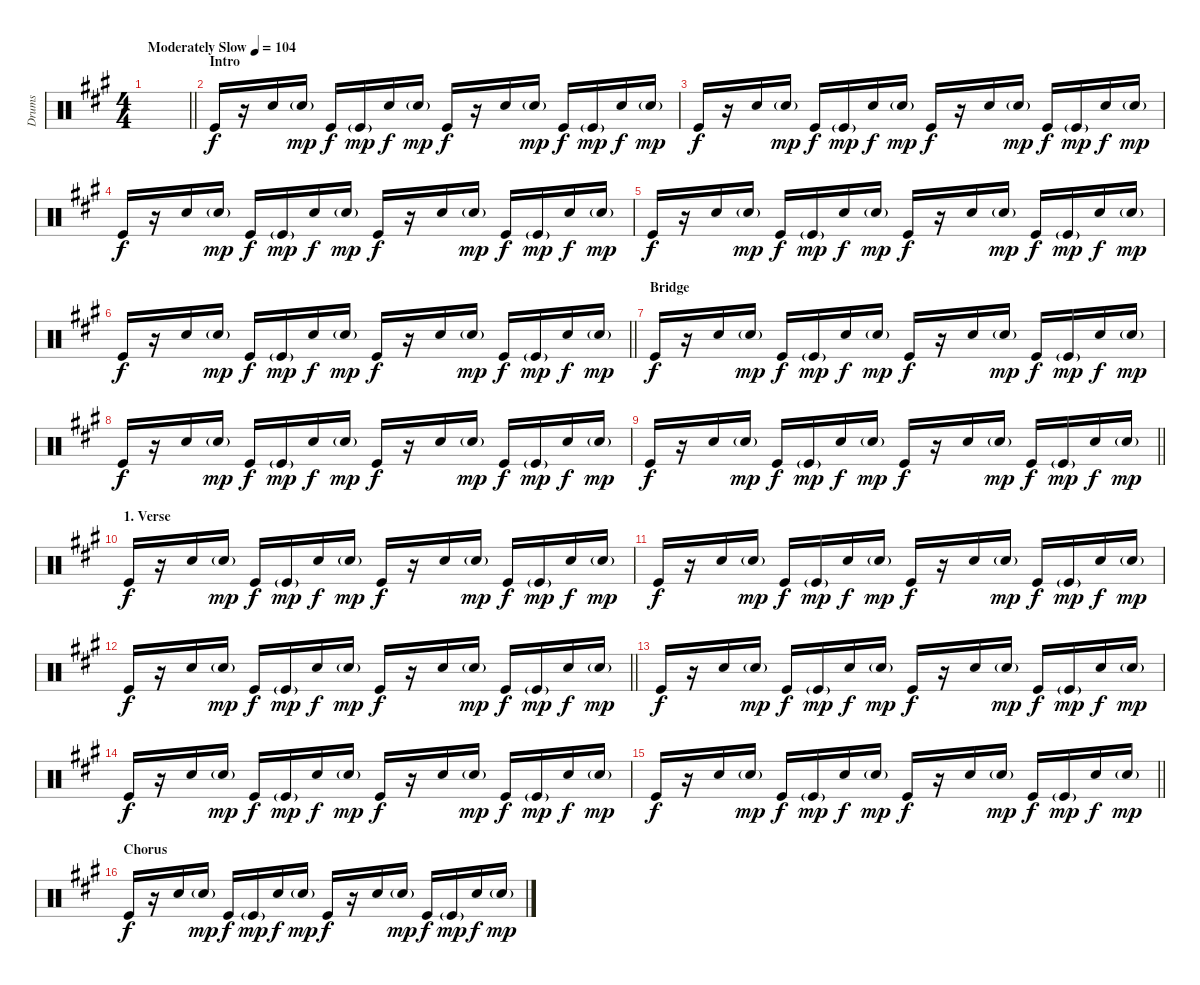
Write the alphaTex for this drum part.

\track ("Drums" "Drums") {instrument percussion}
\staff {score}
\articulation defaults
\ts (4 4)
\tempo (104 "Moderately Slow")
\clef neutral
\barLineRight lightlight
\ks a
|
\section ("" "Intro")
"Kick (hit)".16 r.16 "Electric Snare (hit)".16 "Electric Snare (hit)"{g}.16{dy mp} "Kick (hit)".16{dy f} "Kick (hit)"{g}.16{dy mp} "Electric Snare (hit)".16{dy f} "Electric Snare (hit)"{g}.16{dy mp} "Kick (hit)".16{dy f} r.16 "Electric Snare (hit)".16 "Electric Snare (hit)"{g}.16{dy mp} "Kick (hit)".16{dy f} "Kick (hit)"{g}.16{dy mp} "Electric Snare (hit)".16{dy f} "Electric Snare (hit)"{g}.16{dy mp} |
"Kick (hit)".16{dy f} r.16 "Electric Snare (hit)".16 "Electric Snare (hit)"{g}.16{dy mp} "Kick (hit)".16{dy f} "Kick (hit)"{g}.16{dy mp} "Electric Snare (hit)".16{dy f} "Electric Snare (hit)"{g}.16{dy mp} "Kick (hit)".16{dy f} r.16 "Electric Snare (hit)".16 "Electric Snare (hit)"{g}.16{dy mp} "Kick (hit)".16{dy f} "Kick (hit)"{g}.16{dy mp} "Electric Snare (hit)".16{dy f} "Electric Snare (hit)"{g}.16{dy mp} |
"Kick (hit)".16{dy f} r.16 "Electric Snare (hit)".16 "Electric Snare (hit)"{g}.16{dy mp} "Kick (hit)".16{dy f} "Kick (hit)"{g}.16{dy mp} "Electric Snare (hit)".16{dy f} "Electric Snare (hit)"{g}.16{dy mp} "Kick (hit)".16{dy f} r.16 "Electric Snare (hit)".16 "Electric Snare (hit)"{g}.16{dy mp} "Kick (hit)".16{dy f} "Kick (hit)"{g}.16{dy mp} "Electric Snare (hit)".16{dy f} "Electric Snare (hit)"{g}.16{dy mp} |
"Kick (hit)".16{dy f} r.16 "Electric Snare (hit)".16 "Electric Snare (hit)"{g}.16{dy mp} "Kick (hit)".16{dy f} "Kick (hit)"{g}.16{dy mp} "Electric Snare (hit)".16{dy f} "Electric Snare (hit)"{g}.16{dy mp} "Kick (hit)".16{dy f} r.16 "Electric Snare (hit)".16 "Electric Snare (hit)"{g}.16{dy mp} "Kick (hit)".16{dy f} "Kick (hit)"{g}.16{dy mp} "Electric Snare (hit)".16{dy f} "Electric Snare (hit)"{g}.16{dy mp} |
\barLineRight lightlight "Kick (hit)".16{dy f}
r.16 "Electric Snare (hit)".16 "Electric Snare (hit)"{g}.16{dy mp} "Kick (hit)".16{dy f} "Kick (hit)"{g}.16{dy mp} "Electric Snare (hit)".16{dy f} "Electric Snare (hit)"{g}.16{dy mp} "Kick (hit)".16{dy f} r.16 "Electric Snare (hit)".16 "Electric Snare (hit)"{g}.16{dy mp} "Kick (hit)".16{dy f} "Kick (hit)"{g}.16{dy mp} "Electric Snare (hit)".16{dy f} "Electric Snare (hit)"{g}.16{dy mp} |
\section ("" "Bridge")
"Kick (hit)".16{dy f} r.16 "Electric Snare (hit)".16 "Electric Snare (hit)"{g}.16{dy mp} "Kick (hit)".16{dy f} "Kick (hit)"{g}.16{dy mp} "Electric Snare (hit)".16{dy f} "Electric Snare (hit)"{g}.16{dy mp} "Kick (hit)".16{dy f} r.16 "Electric Snare (hit)".16 "Electric Snare (hit)"{g}.16{dy mp} "Kick (hit)".16{dy f} "Kick (hit)"{g}.16{dy mp} "Electric Snare (hit)".16{dy f} "Electric Snare (hit)"{g}.16{dy mp} |
"Kick (hit)".16{dy f} r.16 "Electric Snare (hit)".16 "Electric Snare (hit)"{g}.16{dy mp} "Kick (hit)".16{dy f} "Kick (hit)"{g}.16{dy mp} "Electric Snare (hit)".16{dy f} "Electric Snare (hit)"{g}.16{dy mp} "Kick (hit)".16{dy f} r.16 "Electric Snare (hit)".16 "Electric Snare (hit)"{g}.16{dy mp} "Kick (hit)".16{dy f} "Kick (hit)"{g}.16{dy mp} "Electric Snare (hit)".16{dy f} "Electric Snare (hit)"{g}.16{dy mp} |
\barLineRight lightlight "Kick (hit)".16{dy f}
r.16 "Electric Snare (hit)".16 "Electric Snare (hit)"{g}.16{dy mp} "Kick (hit)".16{dy f} "Kick (hit)"{g}.16{dy mp} "Electric Snare (hit)".16{dy f} "Electric Snare (hit)"{g}.16{dy mp} "Kick (hit)".16{dy f} r.16 "Electric Snare (hit)".16 "Electric Snare (hit)"{g}.16{dy mp} "Kick (hit)".16{dy f} "Kick (hit)"{g}.16{dy mp} "Electric Snare (hit)".16{dy f} "Electric Snare (hit)"{g}.16{dy mp} |
\section ("" "1. Verse")
"Kick (hit)".16{dy f} r.16 "Electric Snare (hit)".16 "Electric Snare (hit)"{g}.16{dy mp} "Kick (hit)".16{dy f} "Kick (hit)"{g}.16{dy mp} "Electric Snare (hit)".16{dy f} "Electric Snare (hit)"{g}.16{dy mp} "Kick (hit)".16{dy f} r.16 "Electric Snare (hit)".16 "Electric Snare (hit)"{g}.16{dy mp} "Kick (hit)".16{dy f} "Kick (hit)"{g}.16{dy mp} "Electric Snare (hit)".16{dy f} "Electric Snare (hit)"{g}.16{dy mp} |
"Kick (hit)".16{dy f} r.16 "Electric Snare (hit)".16 "Electric Snare (hit)"{g}.16{dy mp} "Kick (hit)".16{dy f} "Kick (hit)"{g}.16{dy mp} "Electric Snare (hit)".16{dy f} "Electric Snare (hit)"{g}.16{dy mp} "Kick (hit)".16{dy f} r.16 "Electric Snare (hit)".16 "Electric Snare (hit)"{g}.16{dy mp} "Kick (hit)".16{dy f} "Kick (hit)"{g}.16{dy mp} "Electric Snare (hit)".16{dy f} "Electric Snare (hit)"{g}.16{dy mp} |
\barLineRight lightlight "Kick (hit)".16{dy f}
r.16 "Electric Snare (hit)".16 "Electric Snare (hit)"{g}.16{dy mp} "Kick (hit)".16{dy f} "Kick (hit)"{g}.16{dy mp} "Electric Snare (hit)".16{dy f} "Electric Snare (hit)"{g}.16{dy mp} "Kick (hit)".16{dy f} r.16 "Electric Snare (hit)".16 "Electric Snare (hit)"{g}.16{dy mp} "Kick (hit)".16{dy f} "Kick (hit)"{g}.16{dy mp} "Electric Snare (hit)".16{dy f} "Electric Snare (hit)"{g}.16{dy mp} |
"Kick (hit)".16{dy f} r.16 "Electric Snare (hit)".16 "Electric Snare (hit)"{g}.16{dy mp} "Kick (hit)".16{dy f} "Kick (hit)"{g}.16{dy mp} "Electric Snare (hit)".16{dy f} "Electric Snare (hit)"{g}.16{dy mp} "Kick (hit)".16{dy f} r.16 "Electric Snare (hit)".16 "Electric Snare (hit)"{g}.16{dy mp} "Kick (hit)".16{dy f} "Kick (hit)"{g}.16{dy mp} "Electric Snare (hit)".16{dy f} "Electric Snare (hit)"{g}.16{dy mp} |
"Kick (hit)".16{dy f} r.16 "Electric Snare (hit)".16 "Electric Snare (hit)"{g}.16{dy mp} "Kick (hit)".16{dy f} "Kick (hit)"{g}.16{dy mp} "Electric Snare (hit)".16{dy f} "Electric Snare (hit)"{g}.16{dy mp} "Kick (hit)".16{dy f} r.16 "Electric Snare (hit)".16 "Electric Snare (hit)"{g}.16{dy mp} "Kick (hit)".16{dy f} "Kick (hit)"{g}.16{dy mp} "Electric Snare (hit)".16{dy f} "Electric Snare (hit)"{g}.16{dy mp} |
\barLineRight lightlight "Kick (hit)".16{dy f}
r.16 "Electric Snare (hit)".16 "Electric Snare (hit)"{g}.16{dy mp} "Kick (hit)".16{dy f} "Kick (hit)"{g}.16{dy mp} "Electric Snare (hit)".16{dy f} "Electric Snare (hit)"{g}.16{dy mp} "Kick (hit)".16{dy f} r.16 "Electric Snare (hit)".16 "Electric Snare (hit)"{g}.16{dy mp} "Kick (hit)".16{dy f} "Kick (hit)"{g}.16{dy mp} "Electric Snare (hit)".16{dy f} "Electric Snare (hit)"{g}.16{dy mp} |
\section ("" "Chorus")
"Kick (hit)".16{dy f} r.16 "Electric Snare (hit)".16 "Electric Snare (hit)"{g}.16{dy mp} "Kick (hit)".16{dy f} "Kick (hit)"{g}.16{dy mp} "Electric Snare (hit)".16{dy f} "Electric Snare (hit)"{g}.16{dy mp} "Kick (hit)".16{dy f} r.16 "Electric Snare (hit)".16 "Electric Snare (hit)"{g}.16{dy mp} "Kick (hit)".16{dy f} "Kick (hit)"{g}.16{dy mp} "Electric Snare (hit)".16{dy f} "Electric Snare (hit)"{g}.16{dy mp}
